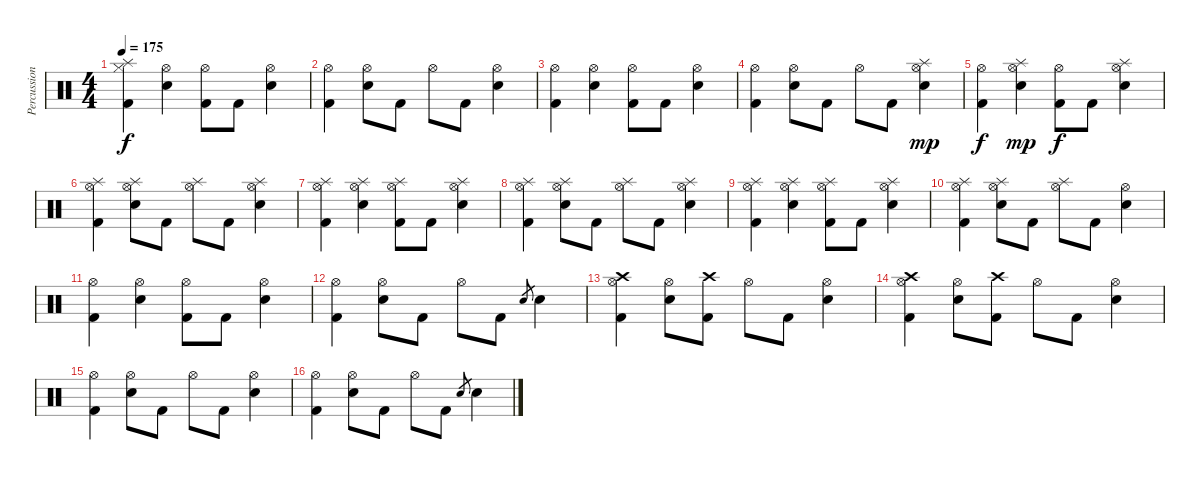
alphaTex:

\track ("Percussion" "Percussion") {instrument percussion}
\staff {score}
\articulation defaults
\ts (4 4)
\tempo 175
\clef neutral
\ks c
("Splash (hit)" "Kick (hit) 2" "Hi-Hat (closed)").4{dy f} ("Hi-Hat (open)" "Snare (hit) 2").4 ("Hi-Hat (open)" "Kick (hit) 2").8 "Kick (hit) 2".8 ("Hi-Hat (open)" "Snare (hit) 2").4 |
("Hi-Hat (open)" "Kick (hit) 2").4 ("Hi-Hat (open)" "Snare (hit) 2").8 "Kick (hit) 2".8 "Hi-Hat (open)".8 "Kick (hit) 2".8 ("Hi-Hat (open)" "Snare (hit) 2").4 |
("Kick (hit) 2" "Hi-Hat (open)").4 ("Hi-Hat (open)" "Snare (hit) 2").4 ("Hi-Hat (open)" "Kick (hit) 2").8 "Kick (hit) 2".8 ("Hi-Hat (open)" "Snare (hit) 2").4 |
("Hi-Hat (open)" "Kick (hit) 2").4 ("Hi-Hat (open)" "Snare (hit) 2").8 "Kick (hit) 2".8 "Hi-Hat (open)".8 "Kick (hit) 2".8 ("Hi-Hat (open)" "Snare (hit) 2" "Splash (hit)").4{dy mp} |
("Kick (hit) 2" "Hi-Hat (open)").4{dy f} ("Hi-Hat (open)" "Snare (hit) 2" "Splash (hit)").4{dy mp} ("Hi-Hat (open)" "Kick (hit) 2").8{dy f} "Kick (hit) 2".8 ("Hi-Hat (open)" "Snare (hit) 2" "Splash (hit)").4 |
("Hi-Hat (open)" "Kick (hit) 2" "Splash (hit)").4 ("Hi-Hat (open)" "Snare (hit) 2" "Splash (hit)").8 "Kick (hit) 2".8 ("Hi-Hat (open)" "Splash (hit)").8 "Kick (hit) 2".8 ("Hi-Hat (open)" "Snare (hit) 2" "Splash (hit)").4 |
("Splash (hit)" "Kick (hit) 2" "Hi-Hat (open)").4 ("Hi-Hat (open)" "Snare (hit) 2" "Splash (hit)").4 ("Hi-Hat (open)" "Kick (hit) 2" "Splash (hit)").8 "Kick (hit) 2".8 ("Hi-Hat (open)" "Snare (hit) 2" "Splash (hit)").4 |
("Hi-Hat (open)" "Kick (hit) 2" "Splash (hit)").4 ("Hi-Hat (open)" "Snare (hit) 2" "Splash (hit)").8 "Kick (hit) 2".8 ("Hi-Hat (open)" "Splash (hit)").8 "Kick (hit) 2".8 ("Hi-Hat (open)" "Snare (hit) 2" "Splash (hit)").4 |
("Splash (hit)" "Kick (hit) 2" "Hi-Hat (open)").4 ("Hi-Hat (open)" "Snare (hit) 2" "Splash (hit)").4 ("Hi-Hat (open)" "Kick (hit) 2" "Splash (hit)").8 "Kick (hit) 2".8 ("Hi-Hat (open)" "Snare (hit) 2" "Splash (hit)").4 |
("Hi-Hat (open)" "Kick (hit) 2" "Splash (hit)").4 ("Hi-Hat (open)" "Snare (hit) 2" "Splash (hit)").8 "Kick (hit) 2".8 ("Hi-Hat (open)" "Splash (hit)").8 "Kick (hit) 2".8 ("Hi-Hat (open)" "Snare (hit) 2").4 |
("Kick (hit) 2" "Hi-Hat (open)").4 ("Hi-Hat (open)" "Snare (hit) 2").4 ("Hi-Hat (open)" "Kick (hit) 2").8 "Kick (hit) 2".8 ("Hi-Hat (open)" "Snare (hit) 2").4 |
("Hi-Hat (open)" "Kick (hit) 2").4 ("Hi-Hat (open)" "Snare (hit) 2").8 "Kick (hit) 2".8 "Hi-Hat (open)".8 "Kick (hit) 2".8 "Snare (hit) 2".8{gr} "Snare (hit) 2".4 |
("Hi-Hat (open)" "Kick (hit) 2" "Crash high (hit)").4 ("Hi-Hat (open)" "Snare (hit) 2").8 ("Kick (hit) 2" "Crash high (hit)").8 "Hi-Hat (open)".8 "Kick (hit) 2".8 ("Hi-Hat (open)" "Snare (hit) 2").4 |
("Hi-Hat (open)" "Kick (hit) 2" "Crash high (hit)").4 ("Hi-Hat (open)" "Snare (hit) 2").8 ("Kick (hit) 2" "Crash high (hit)").8 "Hi-Hat (open)".8 "Kick (hit) 2".8 ("Hi-Hat (open)" "Snare (hit) 2").4 |
("Hi-Hat (open)" "Kick (hit) 2").4 ("Hi-Hat (open)" "Snare (hit) 2").8 "Kick (hit) 2".8 "Hi-Hat (open)".8 "Kick (hit) 2".8 ("Hi-Hat (open)" "Snare (hit) 2").4 |
("Hi-Hat (open)" "Kick (hit) 2").4 ("Hi-Hat (open)" "Snare (hit) 2").8 "Kick (hit) 2".8 "Hi-Hat (open)".8 "Kick (hit) 2".8 "Snare (hit) 2".8{gr} "Snare (hit) 2".4
